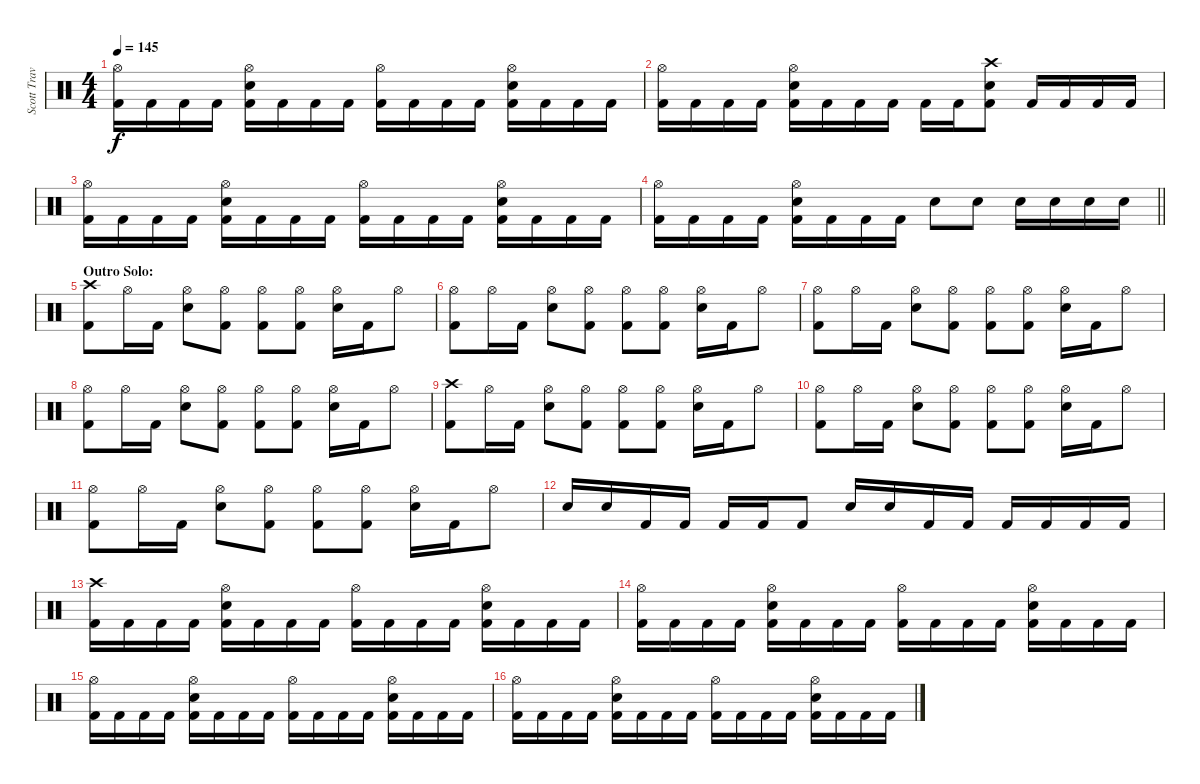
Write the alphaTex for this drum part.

\track ("Scott Travis" "Scott Trav") {instrument percussion}
\staff {score}
\articulation defaults
\ts (4 4)
\tempo 145
\clef neutral
\ks c
("Hi-Hat (open)" "Kick (hit) 2").16{dy f} "Kick (hit) 2".16 "Kick (hit) 2".16 "Kick (hit) 2".16 ("Hi-Hat (open)" "Snare (hit) 2" "Kick (hit) 2").16 "Kick (hit) 2".16 "Kick (hit) 2".16 "Kick (hit) 2".16 ("Hi-Hat (open)" "Kick (hit) 2").16 "Kick (hit) 2".16 "Kick (hit) 2".16 "Kick (hit) 2".16 ("Hi-Hat (open)" "Snare (hit) 2" "Kick (hit) 2").16 "Kick (hit) 2".16 "Kick (hit) 2".16 "Kick (hit) 2".16 |
("Hi-Hat (open)" "Kick (hit) 2").16 "Kick (hit) 2".16 "Kick (hit) 2".16 "Kick (hit) 2".16 ("Hi-Hat (open)" "Snare (hit) 2" "Kick (hit) 2").16 "Kick (hit) 2".16 "Kick (hit) 2".16 "Kick (hit) 2".16 "Kick (hit) 2".16 "Kick (hit) 2".16 ("Crash high (hit)" "Snare (hit) 2" "Kick (hit) 2").8 "Kick (hit) 2".16 "Kick (hit) 2".16 "Kick (hit) 2".16 "Kick (hit) 2".16 |
("Hi-Hat (open)" "Kick (hit) 2").16 "Kick (hit) 2".16 "Kick (hit) 2".16 "Kick (hit) 2".16 ("Hi-Hat (open)" "Snare (hit) 2" "Kick (hit) 2").16 "Kick (hit) 2".16 "Kick (hit) 2".16 "Kick (hit) 2".16 ("Hi-Hat (open)" "Kick (hit) 2").16 "Kick (hit) 2".16 "Kick (hit) 2".16 "Kick (hit) 2".16 ("Hi-Hat (open)" "Snare (hit) 2" "Kick (hit) 2").16 "Kick (hit) 2".16 "Kick (hit) 2".16 "Kick (hit) 2".16 |
\barLineRight lightlight
("Hi-Hat (open)" "Kick (hit) 2").16 "Kick (hit) 2".16 "Kick (hit) 2".16 "Kick (hit) 2".16 ("Hi-Hat (open)" "Snare (hit) 2" "Kick (hit) 2").16 "Kick (hit) 2".16 "Kick (hit) 2".16 "Kick (hit) 2".16 "Snare (hit) 2".8 "Snare (hit) 2".8 "Snare (hit) 2".16 "Snare (hit) 2".16 "Snare (hit) 2".16 "Snare (hit) 2".16 |
\section ("" "Outro Solo:")
("Crash high (hit)" "Kick (hit) 2").8 "Hi-Hat (open)".16 "Kick (hit) 2".16 ("Hi-Hat (open)" "Snare (hit) 2").8 ("Hi-Hat (open)" "Kick (hit) 2").8 ("Hi-Hat (open)" "Kick (hit) 2").8 ("Hi-Hat (open)" "Kick (hit) 2").8 ("Hi-Hat (open)" "Snare (hit) 2").16 "Kick (hit) 2".16 "Hi-Hat (open)".8 |
("Hi-Hat (open)" "Kick (hit) 2").8 "Hi-Hat (open)".16 "Kick (hit) 2".16 ("Hi-Hat (open)" "Snare (hit) 2").8 ("Hi-Hat (open)" "Kick (hit) 2").8 ("Hi-Hat (open)" "Kick (hit) 2").8 ("Hi-Hat (open)" "Kick (hit) 2").8 ("Hi-Hat (open)" "Snare (hit) 2").16 "Kick (hit) 2".16 "Hi-Hat (open)".8 |
("Hi-Hat (open)" "Kick (hit) 2").8 "Hi-Hat (open)".16 "Kick (hit) 2".16 ("Hi-Hat (open)" "Snare (hit) 2").8 ("Hi-Hat (open)" "Kick (hit) 2").8 ("Hi-Hat (open)" "Kick (hit) 2").8 ("Hi-Hat (open)" "Kick (hit) 2").8 ("Hi-Hat (open)" "Snare (hit) 2").16 "Kick (hit) 2".16 "Hi-Hat (open)".8 |
("Hi-Hat (open)" "Kick (hit) 2").8 "Hi-Hat (open)".16 "Kick (hit) 2".16 ("Hi-Hat (open)" "Snare (hit) 2").8 ("Hi-Hat (open)" "Kick (hit) 2").8 ("Hi-Hat (open)" "Kick (hit) 2").8 ("Hi-Hat (open)" "Kick (hit) 2").8 ("Hi-Hat (open)" "Snare (hit) 2").16 "Kick (hit) 2".16 "Hi-Hat (open)".8 |
("Crash high (hit)" "Kick (hit) 2").8 "Hi-Hat (open)".16 "Kick (hit) 2".16 ("Hi-Hat (open)" "Snare (hit) 2").8 ("Hi-Hat (open)" "Kick (hit) 2").8 ("Hi-Hat (open)" "Kick (hit) 2").8 ("Hi-Hat (open)" "Kick (hit) 2").8 ("Hi-Hat (open)" "Snare (hit) 2").16 "Kick (hit) 2".16 "Hi-Hat (open)".8 |
("Hi-Hat (open)" "Kick (hit) 2").8 "Hi-Hat (open)".16 "Kick (hit) 2".16 ("Hi-Hat (open)" "Snare (hit) 2").8 ("Hi-Hat (open)" "Kick (hit) 2").8 ("Hi-Hat (open)" "Kick (hit) 2").8 ("Hi-Hat (open)" "Kick (hit) 2").8 ("Hi-Hat (open)" "Snare (hit) 2").16 "Kick (hit) 2".16 "Hi-Hat (open)".8 |
("Hi-Hat (open)" "Kick (hit) 2").8 "Hi-Hat (open)".16 "Kick (hit) 2".16 ("Hi-Hat (open)" "Snare (hit) 2").8 ("Hi-Hat (open)" "Kick (hit) 2").8 ("Hi-Hat (open)" "Kick (hit) 2").8 ("Hi-Hat (open)" "Kick (hit) 2").8 ("Hi-Hat (open)" "Snare (hit) 2").16 "Kick (hit) 2".16 "Hi-Hat (open)".8 |
"Snare (hit) 2".16 "Snare (hit) 2".16 "Kick (hit) 2".16 "Kick (hit) 2".16 "Kick (hit) 2".16 "Kick (hit) 2".16 "Kick (hit) 2".8 "Snare (hit) 2".16 "Snare (hit) 2".16 "Kick (hit) 2".16 "Kick (hit) 2".16 "Kick (hit) 2".16 "Kick (hit) 2".16 "Kick (hit) 2".16 "Kick (hit) 2".16 |
("Crash high (hit)" "Kick (hit) 2").16 "Kick (hit) 2".16 "Kick (hit) 2".16 "Kick (hit) 2".16 ("Hi-Hat (open)" "Snare (hit) 2" "Kick (hit) 2").16 "Kick (hit) 2".16 "Kick (hit) 2".16 "Kick (hit) 2".16 ("Hi-Hat (open)" "Kick (hit) 2").16 "Kick (hit) 2".16 "Kick (hit) 2".16 "Kick (hit) 2".16 ("Hi-Hat (open)" "Snare (hit) 2" "Kick (hit) 2").16 "Kick (hit) 2".16 "Kick (hit) 2".16 "Kick (hit) 2".16 |
("Hi-Hat (open)" "Kick (hit) 2").16 "Kick (hit) 2".16 "Kick (hit) 2".16 "Kick (hit) 2".16 ("Hi-Hat (open)" "Snare (hit) 2" "Kick (hit) 2").16 "Kick (hit) 2".16 "Kick (hit) 2".16 "Kick (hit) 2".16 ("Hi-Hat (open)" "Kick (hit) 2").16 "Kick (hit) 2".16 "Kick (hit) 2".16 "Kick (hit) 2".16 ("Hi-Hat (open)" "Snare (hit) 2" "Kick (hit) 2").16 "Kick (hit) 2".16 "Kick (hit) 2".16 "Kick (hit) 2".16 |
("Hi-Hat (open)" "Kick (hit) 2").16 "Kick (hit) 2".16 "Kick (hit) 2".16 "Kick (hit) 2".16 ("Hi-Hat (open)" "Snare (hit) 2" "Kick (hit) 2").16 "Kick (hit) 2".16 "Kick (hit) 2".16 "Kick (hit) 2".16 ("Hi-Hat (open)" "Kick (hit) 2").16 "Kick (hit) 2".16 "Kick (hit) 2".16 "Kick (hit) 2".16 ("Hi-Hat (open)" "Snare (hit) 2" "Kick (hit) 2").16 "Kick (hit) 2".16 "Kick (hit) 2".16 "Kick (hit) 2".16 |
("Hi-Hat (open)" "Kick (hit) 2").16 "Kick (hit) 2".16 "Kick (hit) 2".16 "Kick (hit) 2".16 ("Hi-Hat (open)" "Snare (hit) 2" "Kick (hit) 2").16 "Kick (hit) 2".16 "Kick (hit) 2".16 "Kick (hit) 2".16 ("Hi-Hat (open)" "Kick (hit) 2").16 "Kick (hit) 2".16 "Kick (hit) 2".16 "Kick (hit) 2".16 ("Hi-Hat (open)" "Snare (hit) 2" "Kick (hit) 2").16 "Kick (hit) 2".16 "Kick (hit) 2".16 "Kick (hit) 2".16
